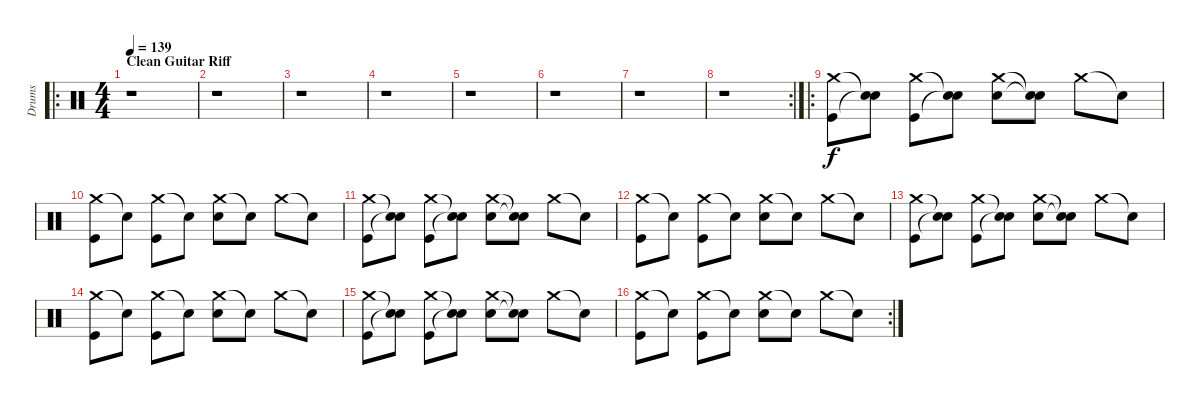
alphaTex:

\track ("Drums" "Drums") {instrument percussion}
\staff {score}
\articulation defaults
\ro
\ts (4 4)
\section ("" "Clean Guitar Riff")
\tempo 139
\clef neutral
\ks c
r.1{dy f} |
r.1 |
r.1 |
r.1 |
r.1 |
r.1 |
r.1 |
\rc 2
r.1 |
\ro
("Crash medium (hit)" "Kick (hit)").8 ("Snare (hit)"{t} "Snare (hit)"{t}).8 ("Crash medium (hit)" "Kick (hit)").8 ("Snare (hit)"{t} "Snare (hit)"{t}).8 ("Crash medium (hit)" "Electric Snare (hit)").8 ("Snare (hit)"{t} "Snare (hit)"{t}).8 "Crash medium (hit)".8 "Snare (hit)"{t}.8 |
("Crash medium (hit)" "Kick (hit)").8 "Snare (hit)"{t}.8 ("Crash medium (hit)" "Kick (hit)").8 "Snare (hit)"{t}.8 ("Crash medium (hit)" "Electric Snare (hit)").8 "Snare (hit)"{t}.8 "Crash medium (hit)".8 "Snare (hit)"{t}.8 |
("Crash medium (hit)" "Kick (hit)").8 ("Snare (hit)"{t} "Snare (hit)"{t}).8 ("Crash medium (hit)" "Kick (hit)").8 ("Snare (hit)"{t} "Snare (hit)"{t}).8 ("Crash medium (hit)" "Electric Snare (hit)").8 ("Snare (hit)"{t} "Snare (hit)"{t}).8 "Crash medium (hit)".8 "Snare (hit)"{t}.8 |
("Crash medium (hit)" "Kick (hit)").8 "Snare (hit)"{t}.8 ("Crash medium (hit)" "Kick (hit)").8 "Snare (hit)"{t}.8 ("Crash medium (hit)" "Electric Snare (hit)").8 "Snare (hit)"{t}.8 "Crash medium (hit)".8 "Snare (hit)"{t}.8 |
("Crash medium (hit)" "Kick (hit)").8 ("Snare (hit)"{t} "Snare (hit)"{t}).8 ("Crash medium (hit)" "Kick (hit)").8 ("Snare (hit)"{t} "Snare (hit)"{t}).8 ("Crash medium (hit)" "Electric Snare (hit)").8 ("Snare (hit)"{t} "Snare (hit)"{t}).8 "Crash medium (hit)".8 "Snare (hit)"{t}.8 |
("Crash medium (hit)" "Kick (hit)").8 "Snare (hit)"{t}.8 ("Crash medium (hit)" "Kick (hit)").8 "Snare (hit)"{t}.8 ("Crash medium (hit)" "Electric Snare (hit)").8 "Snare (hit)"{t}.8 "Crash medium (hit)".8 "Snare (hit)"{t}.8 |
("Crash medium (hit)" "Kick (hit)").8 ("Snare (hit)"{t} "Snare (hit)"{t}).8 ("Crash medium (hit)" "Kick (hit)").8 ("Snare (hit)"{t} "Snare (hit)"{t}).8 ("Crash medium (hit)" "Electric Snare (hit)").8 ("Snare (hit)"{t} "Snare (hit)"{t}).8 "Crash medium (hit)".8 "Snare (hit)"{t}.8 |
\rc 2
("Crash medium (hit)" "Kick (hit)").8 "Snare (hit)"{t}.8 ("Crash medium (hit)" "Kick (hit)").8 "Snare (hit)"{t}.8 ("Crash medium (hit)" "Electric Snare (hit)").8 "Snare (hit)"{t}.8 "Crash medium (hit)".8 "Snare (hit)"{t}.8
